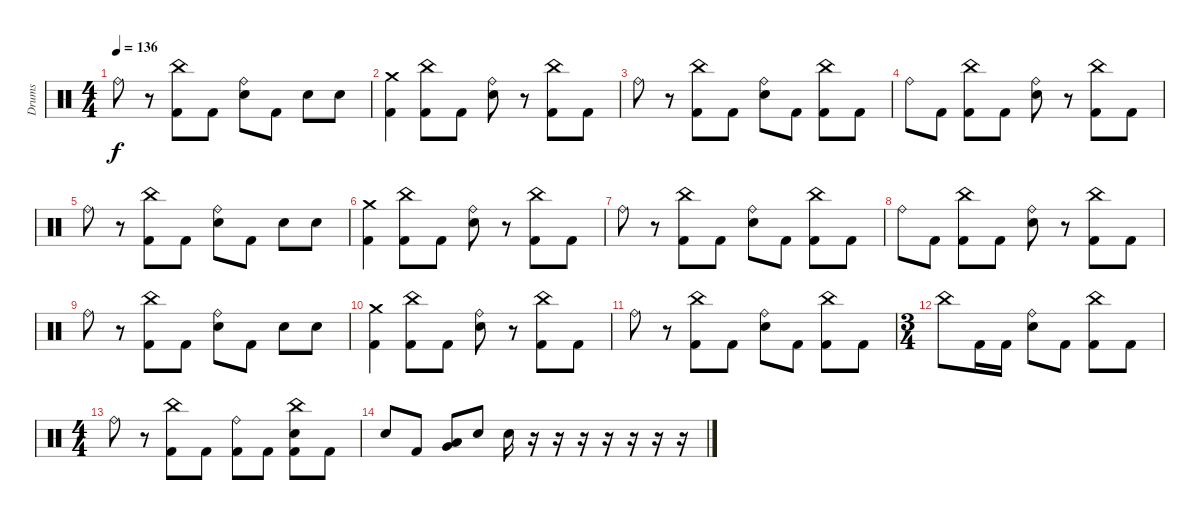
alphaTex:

\track ("Drums" "Drums") {instrument percussion}
\staff {score}
\articulation defaults
\ts (4 4)
\tempo 136
\clef neutral
\ks c "Ride (bell)".8{dy f}
r.8 ("China (hit)" "Kick (hit) 2").8 "Kick (hit) 2".8 ("Ride (bell)" "Snare (hit) 2").8 "Kick (hit) 2".8 "Snare (hit) 2".8 "Snare (hit) 2".8 |
("Crash medium (hit)" "Kick (hit) 2").4 ("China (hit)" "Kick (hit) 2").8 "Kick (hit) 2".8 ("Ride (bell)" "Snare (hit) 2").8 r.8 ("China (hit)" "Kick (hit) 2").8 "Kick (hit) 2".8 |
"Ride (bell)".8 r.8 ("China (hit)" "Kick (hit) 2").8 "Kick (hit) 2".8 ("Ride (bell)" "Snare (hit) 2").8 "Kick (hit) 2".8 ("China (hit)" "Kick (hit) 2").8 "Kick (hit) 2".8 |
"Ride (bell)".8 "Kick (hit) 2".8 ("China (hit)" "Kick (hit) 2").8 "Kick (hit) 2".8 ("Ride (bell)" "Snare (hit) 2").8 r.8 ("China (hit)" "Kick (hit) 2").8 "Kick (hit) 2".8 |
"Ride (bell)".8 r.8 ("China (hit)" "Kick (hit) 2").8 "Kick (hit) 2".8 ("Ride (bell)" "Snare (hit) 2").8 "Kick (hit) 2".8 "Snare (hit) 2".8 "Snare (hit) 2".8 |
("Crash medium (hit)" "Kick (hit) 2").4 ("China (hit)" "Kick (hit) 2").8 "Kick (hit) 2".8 ("Ride (bell)" "Snare (hit) 2").8 r.8 ("China (hit)" "Kick (hit) 2").8 "Kick (hit) 2".8 |
"Ride (bell)".8 r.8 ("China (hit)" "Kick (hit) 2").8 "Kick (hit) 2".8 ("Ride (bell)" "Snare (hit) 2").8 "Kick (hit) 2".8 ("China (hit)" "Kick (hit) 2").8 "Kick (hit) 2".8 |
"Ride (bell)".8 "Kick (hit) 2".8 ("China (hit)" "Kick (hit) 2").8 "Kick (hit) 2".8 ("Ride (bell)" "Snare (hit) 2").8 r.8 ("China (hit)" "Kick (hit) 2").8 "Kick (hit) 2".8 |
"Ride (bell)".8 r.8 ("China (hit)" "Kick (hit) 2").8 "Kick (hit) 2".8 ("Ride (bell)" "Snare (hit) 2").8 "Kick (hit) 2".8 "Snare (hit) 2".8 "Snare (hit) 2".8 |
("Crash medium (hit)" "Kick (hit) 2").4 ("China (hit)" "Kick (hit) 2").8 "Kick (hit) 2".8 ("Ride (bell)" "Snare (hit) 2").8 r.8 ("China (hit)" "Kick (hit) 2").8 "Kick (hit) 2".8 |
"Ride (bell)".8 r.8 ("China (hit)" "Kick (hit) 2").8 "Kick (hit) 2".8 ("Ride (bell)" "Snare (hit) 2").8 "Kick (hit) 2".8 ("China (hit)" "Kick (hit) 2").8 "Kick (hit) 2".8 |
\ts (3 4)
"China (hit)".8 "Kick (hit) 2".16 "Kick (hit) 2".16 ("Ride (bell)" "Snare (hit) 2").8 "Kick (hit) 2".8 ("China (hit)" "Kick (hit) 2").8 "Kick (hit) 2".8 |
\ts (4 4)
"Ride (bell)".8 r.8 ("China (hit)" "Kick (hit) 2").8 "Kick (hit) 2".8 ("Ride (bell)" "Kick (hit) 2").8 "Kick (hit) 2".8 ("China (hit)" "Snare (hit) 2" "Kick (hit) 2").8 "Kick (hit) 2".8 |
"Snare (hit) 2".8 "Kick (hit) 2".8 ("Low Tom (hit)" "Very Low Tom (hit)").8 "Snare (hit) 2".8 "Snare (hit) 2".16 r.16 r.16 r.16 r.16 r.16 r.16 r.16
